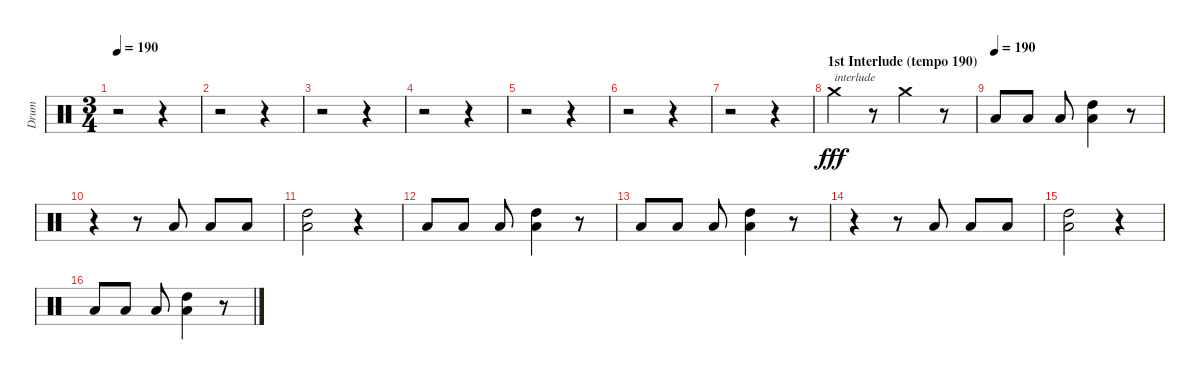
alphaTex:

\track ("Drum" "Drum") {instrument percussion}
\staff {score}
\articulation defaults
\ts (3 4)
\tempo 190
\clef neutral
\ks c
r.2{dy f} r.4 |
r.2 r.4 |
r.2 r.4 |
r.2 r.4 |
r.2 r.4 |
r.2 r.4 |
r.2 r.4 |
\section ("" "1st Interlude (tempo 190)")
"Crash medium (hit)".4{txt "interlude" dy fff} r.8 "Crash medium (hit)".4 r.8 |
\tempo (190)
"Low Tom (hit)".8 "Low Tom (hit)".8 "Low Tom (hit)".8 ("High Tom (hit)" "Low Tom (hit)").4 r.8 |
r.4 r.8 "Low Tom (hit)".8 "Low Tom (hit)".8 "Low Tom (hit)".8 |
("High Tom (hit)" "Low Tom (hit)").2 r.4 |
"Low Tom (hit)".8 "Low Tom (hit)".8 "Low Tom (hit)".8 ("High Tom (hit)" "Low Tom (hit)").4 r.8 |
"Low Tom (hit)".8 "Low Tom (hit)".8 "Low Tom (hit)".8 ("High Tom (hit)" "Low Tom (hit)").4 r.8 |
r.4 r.8 "Low Tom (hit)".8 "Low Tom (hit)".8 "Low Tom (hit)".8 |
("High Tom (hit)" "Low Tom (hit)").2 r.4 |
"Low Tom (hit)".8 "Low Tom (hit)".8 "Low Tom (hit)".8 ("High Tom (hit)" "Low Tom (hit)").4 r.8
